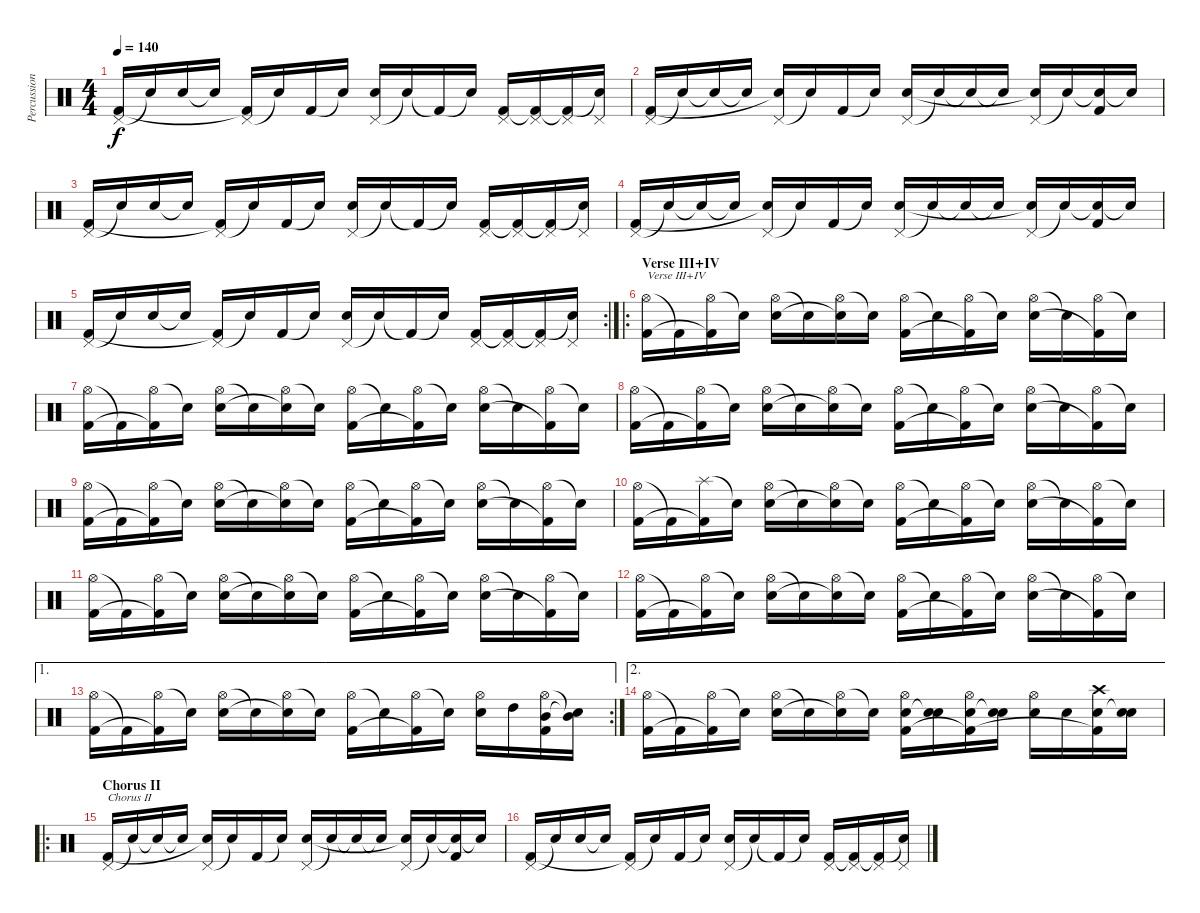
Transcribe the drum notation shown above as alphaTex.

\track ("Percussion" "Percussion") {instrument percussion}
\staff {score}
\articulation defaults
\ts (4 4)
\tempo 140
\clef neutral
\ks c
("Pedal Hi-Hat (hit)" "Kick (hit) 2").16{dy f} "Snare (hit)"{t}.16 "Electric Snare (hit)".16 "Snare (hit)"{t}.16 ("Pedal Hi-Hat (hit)" "Kick (hit) 2"{t}).16 "Snare (hit)"{t}.16 "Kick (hit) 2".16 "Snare (hit)"{t}.16 ("Pedal Hi-Hat (hit)" "Electric Snare (hit)").16 "Snare (hit)"{t}.16 "Kick (hit) 2"{t}.16 "Snare (hit)"{t}.16 ("Pedal Hi-Hat (hit)" "Kick (hit) 2").16 ("Pedal Hi-Hat (hit)" "Kick (hit) 2"{t}).16 ("Pedal Hi-Hat (hit)" "Kick (hit) 2"{t}).16 ("Pedal Hi-Hat (hit)" "Snare (hit)"{t}).16 |
("Pedal Hi-Hat (hit)" "Kick (hit) 2").16 "Snare (hit)"{t}.16 "Snare (hit)"{t}.16 "Snare (hit)"{t}.16 ("Pedal Hi-Hat (hit)" "Snare (hit)"{t}).16 "Snare (hit)"{t}.16 "Kick (hit) 2".16 "Snare (hit)"{t}.16 ("Pedal Hi-Hat (hit)" "Electric Snare (hit)").16 "Snare (hit)"{t}.16 "Snare (hit)"{t}.16 "Snare (hit)"{t}.16 ("Pedal Hi-Hat (hit)" "Snare (hit)"{t}).16 "Snare (hit)"{t}.16 ("Snare (hit)"{t} "Kick (hit) 2").16 "Snare (hit)"{t}.16 |
("Pedal Hi-Hat (hit)" "Kick (hit) 2").16 "Snare (hit)"{t}.16 "Electric Snare (hit)".16 "Snare (hit)"{t}.16 ("Pedal Hi-Hat (hit)" "Kick (hit) 2"{t}).16 "Snare (hit)"{t}.16 "Kick (hit) 2".16 "Snare (hit)"{t}.16 ("Pedal Hi-Hat (hit)" "Electric Snare (hit)").16 "Snare (hit)"{t}.16 "Kick (hit) 2"{t}.16 "Snare (hit)"{t}.16 ("Pedal Hi-Hat (hit)" "Kick (hit) 2").16 ("Pedal Hi-Hat (hit)" "Kick (hit) 2"{t}).16 ("Pedal Hi-Hat (hit)" "Kick (hit) 2"{t}).16 ("Pedal Hi-Hat (hit)" "Snare (hit)"{t}).16 |
("Pedal Hi-Hat (hit)" "Kick (hit) 2").16 "Snare (hit)"{t}.16 "Snare (hit)"{t}.16 "Snare (hit)"{t}.16 ("Pedal Hi-Hat (hit)" "Snare (hit)"{t}).16 "Snare (hit)"{t}.16 "Kick (hit) 2".16 "Snare (hit)"{t}.16 ("Pedal Hi-Hat (hit)" "Electric Snare (hit)").16 "Snare (hit)"{t}.16 "Snare (hit)"{t}.16 "Snare (hit)"{t}.16 ("Pedal Hi-Hat (hit)" "Snare (hit)"{t}).16 "Snare (hit)"{t}.16 ("Snare (hit)"{t} "Kick (hit) 2").16 "Snare (hit)"{t}.16 |
\rc 2
("Pedal Hi-Hat (hit)" "Kick (hit) 2").16 "Snare (hit)"{t}.16 "Electric Snare (hit)".16 "Snare (hit)"{t}.16 ("Pedal Hi-Hat (hit)" "Kick (hit) 2"{t}).16 "Snare (hit)"{t}.16 "Kick (hit) 2".16 "Snare (hit)"{t}.16 ("Pedal Hi-Hat (hit)" "Electric Snare (hit)").16 "Snare (hit)"{t}.16 "Kick (hit) 2"{t}.16 "Snare (hit)"{t}.16 ("Pedal Hi-Hat (hit)" "Kick (hit) 2").16 ("Pedal Hi-Hat (hit)" "Kick (hit) 2"{t}).16 ("Pedal Hi-Hat (hit)" "Kick (hit) 2"{t}).16 ("Pedal Hi-Hat (hit)" "Snare (hit)"{t}).16 |
\ro
\section ("" "Verse III+IV")
("Hi-Hat (open)" "Kick (hit) 2").16{txt "Verse III+IV"} "Kick (hit) 2"{t}.16 ("Hi-Hat (open)" "Kick (hit) 2"{t}).16 "Snare (hit)"{t}.16 ("Hi-Hat (open)" "Electric Snare (hit)").16 "Snare (hit)"{t}.16 ("Hi-Hat (open)" "Snare (hit)"{t}).16 "Snare (hit)"{t}.16 ("Hi-Hat (open)" "Kick (hit) 2").16 "Snare (hit)"{t}.16 ("Hi-Hat (open)" "Kick (hit) 2"{t}).16 "Snare (hit)"{t}.16 ("Hi-Hat (open)" "Electric Snare (hit)").16 "Snare (hit)"{t}.16 ("Hi-Hat (open)" "Kick (hit) 2"{t}).16 "Snare (hit)"{t}.16 |
("Hi-Hat (open)" "Kick (hit) 2").16 "Kick (hit) 2"{t}.16 ("Hi-Hat (open)" "Kick (hit) 2"{t}).16 "Snare (hit)"{t}.16 ("Hi-Hat (open)" "Electric Snare (hit)").16 "Snare (hit)"{t}.16 ("Hi-Hat (open)" "Snare (hit)"{t}).16 "Snare (hit)"{t}.16 ("Hi-Hat (open)" "Kick (hit) 2").16 "Snare (hit)"{t}.16 ("Hi-Hat (open)" "Kick (hit) 2"{t}).16 "Snare (hit)"{t}.16 ("Hi-Hat (open)" "Electric Snare (hit)").16 "Snare (hit)"{t}.16 ("Hi-Hat (open)" "Kick (hit) 2"{t}).16 "Snare (hit)"{t}.16 |
("Hi-Hat (open)" "Kick (hit) 2").16 "Kick (hit) 2"{t}.16 ("Hi-Hat (open)" "Kick (hit) 2"{t}).16 "Snare (hit)"{t}.16 ("Hi-Hat (open)" "Electric Snare (hit)").16 "Snare (hit)"{t}.16 ("Hi-Hat (open)" "Snare (hit)"{t}).16 "Snare (hit)"{t}.16 ("Hi-Hat (open)" "Kick (hit) 2").16 "Snare (hit)"{t}.16 ("Hi-Hat (open)" "Kick (hit) 2"{t}).16 "Snare (hit)"{t}.16 ("Hi-Hat (open)" "Electric Snare (hit)").16 "Snare (hit)"{t}.16 ("Hi-Hat (open)" "Kick (hit) 2"{t}).16 "Snare (hit)"{t}.16 |
("Hi-Hat (open)" "Kick (hit) 2").16 "Kick (hit) 2"{t}.16 ("Hi-Hat (open)" "Kick (hit) 2"{t}).16 "Snare (hit)"{t}.16 ("Hi-Hat (open)" "Electric Snare (hit)").16 "Snare (hit)"{t}.16 ("Hi-Hat (open)" "Snare (hit)"{t}).16 "Snare (hit)"{t}.16 ("Hi-Hat (open)" "Kick (hit) 2").16 "Snare (hit)"{t}.16 ("Hi-Hat (open)" "Kick (hit) 2"{t}).16 "Snare (hit)"{t}.16 ("Hi-Hat (open)" "Electric Snare (hit)").16 "Snare (hit)"{t}.16 ("Hi-Hat (open)" "Kick (hit) 2"{t}).16 "Snare (hit)"{t}.16 |
("Hi-Hat (open)" "Kick (hit) 2").16 "Kick (hit) 2"{t}.16 ("Splash (hit)" "Kick (hit) 2"{t}).16 "Snare (hit)"{t}.16 ("Hi-Hat (open)" "Electric Snare (hit)").16 "Snare (hit)"{t}.16 ("Hi-Hat (open)" "Snare (hit)"{t}).16 "Snare (hit)"{t}.16 ("Hi-Hat (open)" "Kick (hit) 2").16 "Snare (hit)"{t}.16 ("Hi-Hat (open)" "Kick (hit) 2"{t}).16 "Snare (hit)"{t}.16 ("Hi-Hat (open)" "Electric Snare (hit)").16 "Snare (hit)"{t}.16 ("Hi-Hat (open)" "Kick (hit) 2"{t}).16 "Snare (hit)"{t}.16 |
("Hi-Hat (open)" "Kick (hit) 2").16 "Kick (hit) 2"{t}.16 ("Hi-Hat (open)" "Kick (hit) 2"{t}).16 "Snare (hit)"{t}.16 ("Hi-Hat (open)" "Electric Snare (hit)").16 "Snare (hit)"{t}.16 ("Hi-Hat (open)" "Snare (hit)"{t}).16 "Snare (hit)"{t}.16 ("Hi-Hat (open)" "Kick (hit) 2").16 "Snare (hit)"{t}.16 ("Hi-Hat (open)" "Kick (hit) 2"{t}).16 "Snare (hit)"{t}.16 ("Hi-Hat (open)" "Electric Snare (hit)").16 "Snare (hit)"{t}.16 ("Hi-Hat (open)" "Kick (hit) 2"{t}).16 "Snare (hit)"{t}.16 |
("Hi-Hat (open)" "Kick (hit) 2").16 "Kick (hit) 2"{t}.16 ("Hi-Hat (open)" "Kick (hit) 2"{t}).16 "Snare (hit)"{t}.16 ("Hi-Hat (open)" "Electric Snare (hit)").16 "Snare (hit)"{t}.16 ("Hi-Hat (open)" "Snare (hit)"{t}).16 "Snare (hit)"{t}.16 ("Hi-Hat (open)" "Kick (hit) 2").16 "Snare (hit)"{t}.16 ("Hi-Hat (open)" "Kick (hit) 2"{t}).16 "Snare (hit)"{t}.16 ("Hi-Hat (open)" "Electric Snare (hit)").16 "Snare (hit)"{t}.16 ("Hi-Hat (open)" "Kick (hit) 2"{t}).16 "Snare (hit)"{t}.16 |
\ae 1
\rc 2
("Hi-Hat (open)" "Kick (hit) 2").16 "Kick (hit) 2"{t}.16 ("Hi-Hat (open)" "Kick (hit) 2"{t}).16 "Snare (hit)"{t}.16 ("Hi-Hat (open)" "Electric Snare (hit)").16 "Snare (hit)"{t}.16 ("Hi-Hat (open)" "Snare (hit)"{t}).16 "Snare (hit)"{t}.16 ("Hi-Hat (open)" "Kick (hit) 2").16 "Snare (hit)"{t}.16 ("Hi-Hat (open)" "Kick (hit) 2"{t}).16 "Snare (hit)"{t}.16 ("Hi-Hat (open)" "Electric Snare (hit)").16 "High Tom (hit)".16 ("Hi-Hat (open)" "Mid Tom (hit)" "Kick (hit) 2").16 ("Mid Tom (hit)"{t} "Snare (hit)"{t}).16 |
\ae 2
("Hi-Hat (open)" "Kick (hit) 2").16 "Kick (hit) 2"{t}.16 ("Hi-Hat (open)" "Kick (hit) 2"{t}).16 "Snare (hit)"{t}.16 ("Hi-Hat (open)" "Electric Snare (hit)").16 "Snare (hit)"{t}.16 ("Hi-Hat (open)" "Snare (hit)"{t}).16 "Snare (hit)"{t}.16 ("Hi-Hat (open)" "Electric Snare (hit)" "Kick (hit) 2").16 ("Electric Snare (hit)" "Snare (hit)"{t}).16 ("Hi-Hat (open)" "Electric Snare (hit)" "Kick (hit) 2"{t}).16 ("Electric Snare (hit)" "Snare (hit)"{t}).16 ("Hi-Hat (open)" "Electric Snare (hit)").16 "Electric Snare (hit)".16 ("Crash high (hit)" "Electric Snare (hit)" "Kick (hit) 2"{t}).16 ("Electric Snare (hit)" "Snare (hit)"{t}).16 |
\ro
\section ("" "Chorus II")
("Pedal Hi-Hat (hit)" "Kick (hit) 2").16{txt "Chorus II"} "Snare (hit)"{t}.16 "Snare (hit)"{t}.16 "Snare (hit)"{t}.16 ("Pedal Hi-Hat (hit)" "Snare (hit)"{t}).16 "Snare (hit)"{t}.16 "Kick (hit) 2".16 "Snare (hit)"{t}.16 ("Pedal Hi-Hat (hit)" "Electric Snare (hit)").16 "Snare (hit)"{t}.16 "Snare (hit)"{t}.16 "Snare (hit)"{t}.16 ("Pedal Hi-Hat (hit)" "Snare (hit)"{t}).16 "Snare (hit)"{t}.16 ("Snare (hit)"{t} "Kick (hit) 2").16 "Snare (hit)"{t}.16 |
("Pedal Hi-Hat (hit)" "Kick (hit) 2").16 "Snare (hit)"{t}.16 "Electric Snare (hit)".16 "Snare (hit)"{t}.16 ("Pedal Hi-Hat (hit)" "Kick (hit) 2"{t}).16 "Snare (hit)"{t}.16 "Kick (hit) 2".16 "Snare (hit)"{t}.16 ("Pedal Hi-Hat (hit)" "Electric Snare (hit)").16 "Snare (hit)"{t}.16 "Kick (hit) 2"{t}.16 "Snare (hit)"{t}.16 ("Pedal Hi-Hat (hit)" "Kick (hit) 2").16 ("Pedal Hi-Hat (hit)" "Kick (hit) 2"{t}).16 ("Pedal Hi-Hat (hit)" "Kick (hit) 2"{t}).16 ("Pedal Hi-Hat (hit)" "Snare (hit)"{t}).16
